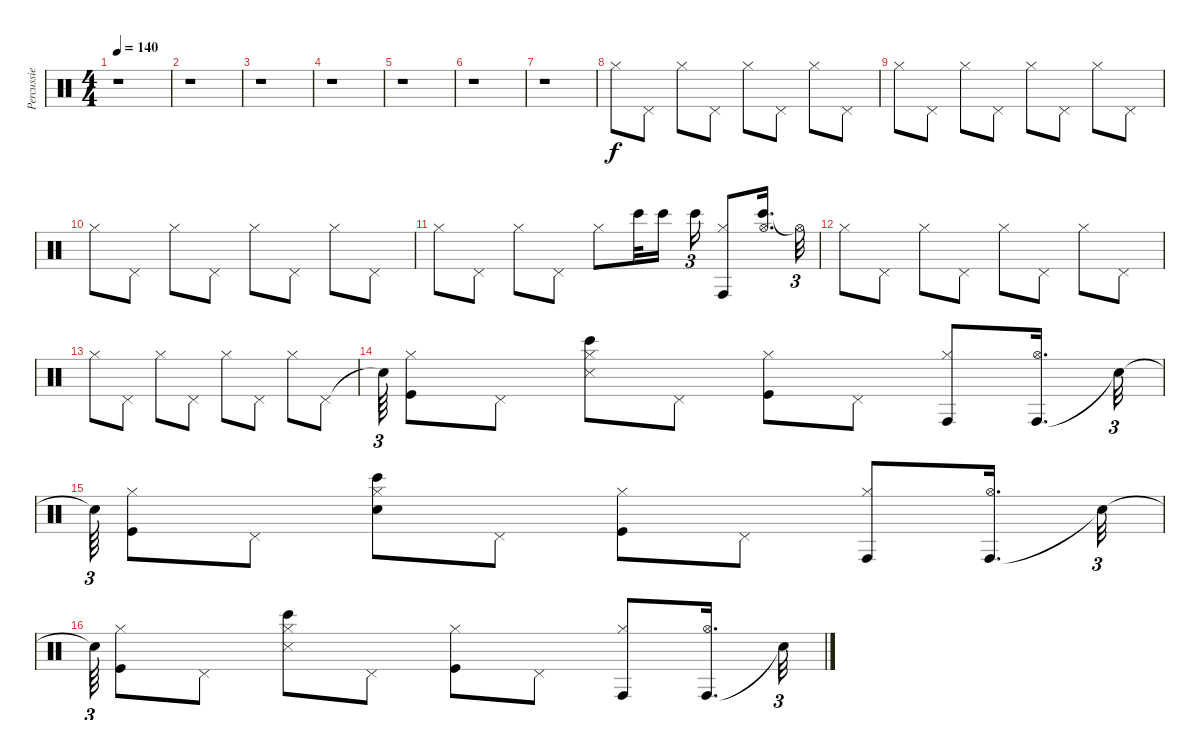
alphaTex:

\track ("Percussie" "Percussie") {instrument percussion}
\staff {score}
\articulation defaults
\ts (4 4)
\tempo 140
\clef neutral
\ks c
r.1{dy f} |
r.1 |
r.1 |
r.1 |
r.1 |
r.1 |
r.1 |
"Hi-Hat (closed)".8 "Pedal Hi-Hat (hit)".8 "Hi-Hat (closed)".8 "Pedal Hi-Hat (hit)".8 "Hi-Hat (closed)".8 "Pedal Hi-Hat (hit)".8 "Hi-Hat (closed)".8 "Pedal Hi-Hat (hit)".8 |
"Hi-Hat (closed)".8 "Pedal Hi-Hat (hit)".8 "Hi-Hat (closed)".8 "Pedal Hi-Hat (hit)".8 "Hi-Hat (closed)".8 "Pedal Hi-Hat (hit)".8 "Hi-Hat (closed)".8 "Pedal Hi-Hat (hit)".8 |
"Hi-Hat (closed)".8 "Pedal Hi-Hat (hit)".8 "Hi-Hat (closed)".8 "Pedal Hi-Hat (hit)".8 "Hi-Hat (closed)".8 "Pedal Hi-Hat (hit)".8 "Hi-Hat (closed)".8 "Pedal Hi-Hat (hit)".8 |
"Hi-Hat (closed)".8 "Pedal Hi-Hat (hit)".8 "Hi-Hat (closed)".8 "Pedal Hi-Hat (hit)".8 "Hi-Hat (closed)".8 "Bongo High (hit)".32 "Bongo High (hit)".16{beam splitsecondary} "Bongo High (hit)".16{tu (3 2)} ("Conga high (hit)" "Hi-Hat (closed)").8 ("Bongo High (hit)" "Hi-Hat (open)").16{d} "Hi-Hat (open)"{t}.32{tu (3 2)} |
"Hi-Hat (closed)".8 "Pedal Hi-Hat (hit)".8 "Hi-Hat (closed)".8 "Pedal Hi-Hat (hit)".8 "Hi-Hat (closed)".8 "Pedal Hi-Hat (hit)".8 "Hi-Hat (closed)".8 "Pedal Hi-Hat (hit)".8 |
"Hi-Hat (closed)".8 "Pedal Hi-Hat (hit)".8 "Hi-Hat (closed)".8 "Pedal Hi-Hat (hit)".8 "Hi-Hat (closed)".8 "Pedal Hi-Hat (hit)".8 "Hi-Hat (closed)".8 "Pedal Hi-Hat (hit)".8 |
"Snare (hit)"{t}.64{tu (3 2)} ("Kick (hit)" "Hi-Hat (closed)").8 "Pedal Hi-Hat (hit)".8 ("Bongo High (hit)" "Snare (side stick) 3" "Hi-Hat (closed)").8 "Pedal Hi-Hat (hit)".8 ("Kick (hit)" "Hi-Hat (closed)").8 "Pedal Hi-Hat (hit)".8 ("Conga high (hit)" "Hi-Hat (closed)").8 ("Conga high (hit)" "Hi-Hat (open)").16{d} "Snare (hit)"{t}.32{tu (3 2)} |
"Snare (hit)"{t}.64{tu (3 2)} ("Kick (hit)" "Hi-Hat (closed)").8 "Pedal Hi-Hat (hit)".8 ("Bongo High (hit)" "Hand Clap (hit)" "Hi-Hat (closed)").8 "Pedal Hi-Hat (hit)".8 ("Kick (hit)" "Hi-Hat (closed)").8 "Pedal Hi-Hat (hit)".8 ("Conga high (hit)" "Hi-Hat (closed)").8 ("Conga high (hit)" "Hi-Hat (open)").16{d} "Snare (hit)"{t}.32{tu (3 2)} |
"Snare (hit)"{t}.64{tu (3 2)} ("Kick (hit)" "Hi-Hat (closed)").8 "Pedal Hi-Hat (hit)".8 ("Bongo High (hit)" "Snare (side stick) 3" "Hi-Hat (closed)").8 "Pedal Hi-Hat (hit)".8 ("Kick (hit)" "Hi-Hat (closed)").8 "Pedal Hi-Hat (hit)".8 ("Conga high (hit)" "Hi-Hat (closed)").8 ("Conga high (hit)" "Hi-Hat (open)").16{d} "Snare (hit)"{t}.32{tu (3 2)}
